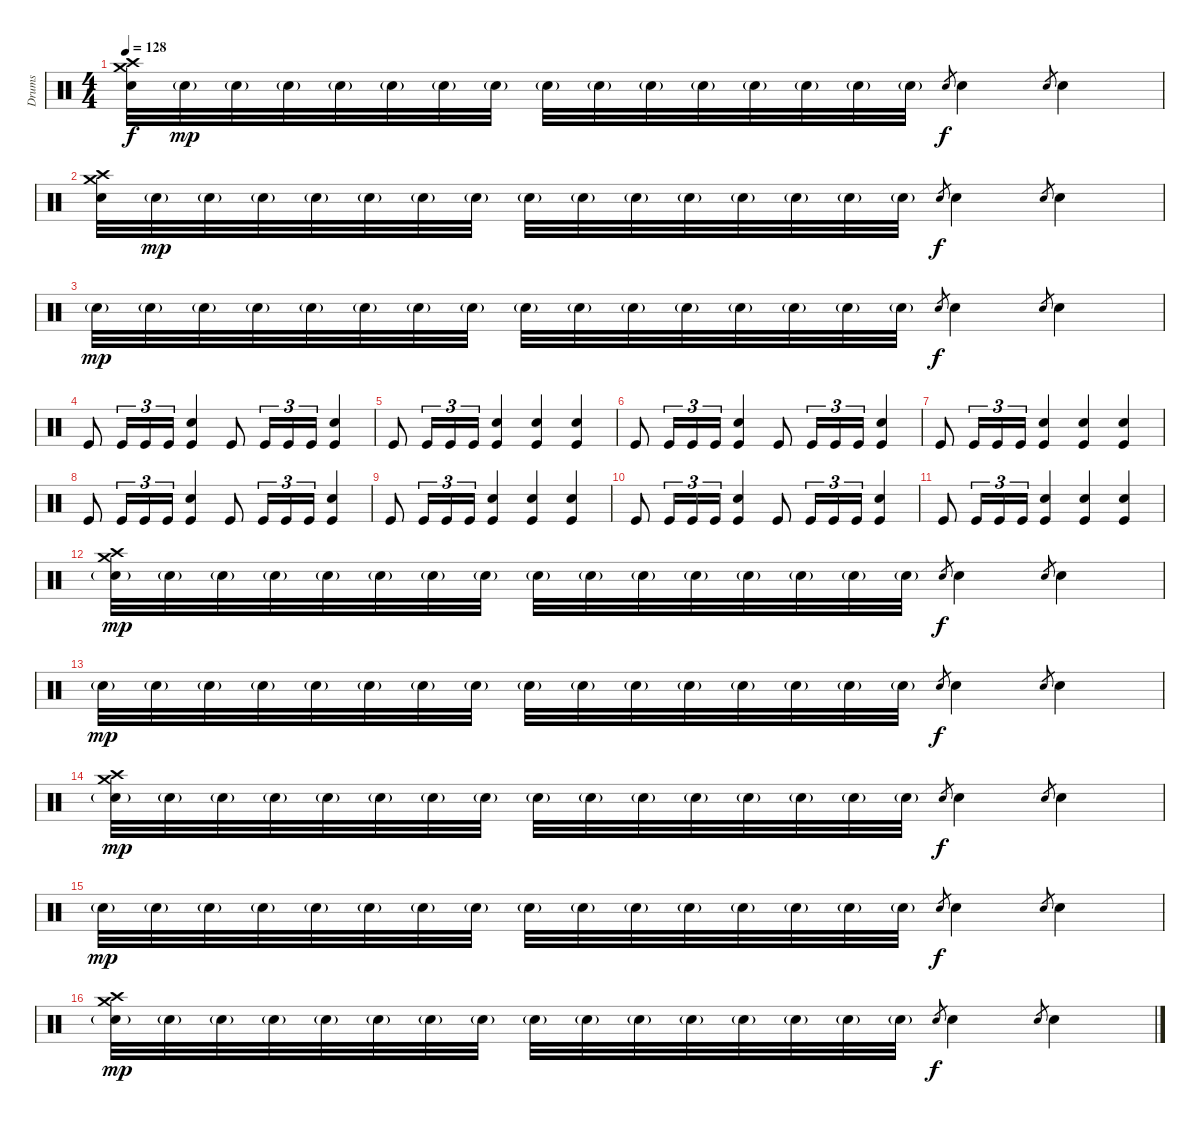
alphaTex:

\track ("Drums" "Drums") {instrument percussion}
\staff {score}
\articulation defaults
\ts (4 4)
\tempo 128
\clef neutral
\ks c
("Crash medium (hit)" "Crash high (hit)" "Snare (hit) 2").32{dy f} "Snare (hit) 2"{g}.32{dy mp} "Snare (hit) 2"{g}.32 "Snare (hit) 2"{g}.32 "Snare (hit) 2"{g}.32 "Snare (hit) 2"{g}.32 "Snare (hit) 2"{g}.32 "Snare (hit) 2"{g}.32 "Snare (hit) 2"{g}.32 "Snare (hit) 2"{g}.32 "Snare (hit) 2"{g}.32 "Snare (hit) 2"{g}.32 "Snare (hit) 2"{g}.32 "Snare (hit) 2"{g}.32 "Snare (hit) 2"{g}.32 "Snare (hit) 2"{g}.32 "Snare (hit) 2".8{gr dy f} "Snare (hit) 2".4 "Snare (hit) 2".8{gr} "Snare (hit) 2".4 |
("Crash medium (hit)" "Crash high (hit)" "Snare (hit) 2").32 "Snare (hit) 2"{g}.32{dy mp} "Snare (hit) 2"{g}.32 "Snare (hit) 2"{g}.32 "Snare (hit) 2"{g}.32 "Snare (hit) 2"{g}.32 "Snare (hit) 2"{g}.32 "Snare (hit) 2"{g}.32 "Snare (hit) 2"{g}.32 "Snare (hit) 2"{g}.32 "Snare (hit) 2"{g}.32 "Snare (hit) 2"{g}.32 "Snare (hit) 2"{g}.32 "Snare (hit) 2"{g}.32 "Snare (hit) 2"{g}.32 "Snare (hit) 2"{g}.32 "Snare (hit) 2".8{gr dy f} "Snare (hit) 2".4 "Snare (hit) 2".8{gr} "Snare (hit) 2".4 |
"Snare (hit) 2"{g}.32{dy mp} "Snare (hit) 2"{g}.32 "Snare (hit) 2"{g}.32 "Snare (hit) 2"{g}.32 "Snare (hit) 2"{g}.32 "Snare (hit) 2"{g}.32 "Snare (hit) 2"{g}.32 "Snare (hit) 2"{g}.32 "Snare (hit) 2"{g}.32 "Snare (hit) 2"{g}.32 "Snare (hit) 2"{g}.32 "Snare (hit) 2"{g}.32 "Snare (hit) 2"{g}.32 "Snare (hit) 2"{g}.32 "Snare (hit) 2"{g}.32 "Snare (hit) 2"{g}.32 "Snare (hit) 2".8{gr dy f} "Snare (hit) 2".4 "Snare (hit) 2".8{gr} "Snare (hit) 2".4 |
\section ("" "")
"Kick (hit)".8{volume 16} "Kick (hit)".16{tu (3 2)} "Kick (hit)".16{tu (3 2)} "Kick (hit)".16{tu (3 2)} ("Snare (hit) 2" "Kick (hit)").4 "Kick (hit)".8 "Kick (hit)".16{tu (3 2)} "Kick (hit)".16{tu (3 2)} "Kick (hit)".16{tu (3 2)} ("Snare (hit) 2" "Kick (hit)").4 |
"Kick (hit)".8 "Kick (hit)".16{tu (3 2)} "Kick (hit)".16{tu (3 2)} "Kick (hit)".16{tu (3 2)} ("Snare (hit) 2" "Kick (hit)").4 ("Snare (hit) 2" "Kick (hit)").4 ("Snare (hit) 2" "Kick (hit)").4 |
"Kick (hit)".8 "Kick (hit)".16{tu (3 2)} "Kick (hit)".16{tu (3 2)} "Kick (hit)".16{tu (3 2)} ("Snare (hit) 2" "Kick (hit)").4 "Kick (hit)".8 "Kick (hit)".16{tu (3 2)} "Kick (hit)".16{tu (3 2)} "Kick (hit)".16{tu (3 2)} ("Snare (hit) 2" "Kick (hit)").4 |
"Kick (hit)".8 "Kick (hit)".16{tu (3 2)} "Kick (hit)".16{tu (3 2)} "Kick (hit)".16{tu (3 2)} ("Snare (hit) 2" "Kick (hit)").4 ("Snare (hit) 2" "Kick (hit)").4 ("Snare (hit) 2" "Kick (hit)").4 |
"Kick (hit)".8 "Kick (hit)".16{tu (3 2)} "Kick (hit)".16{tu (3 2)} "Kick (hit)".16{tu (3 2)} ("Snare (hit) 2" "Kick (hit)").4 "Kick (hit)".8 "Kick (hit)".16{tu (3 2)} "Kick (hit)".16{tu (3 2)} "Kick (hit)".16{tu (3 2)} ("Snare (hit) 2" "Kick (hit)").4 |
"Kick (hit)".8 "Kick (hit)".16{tu (3 2)} "Kick (hit)".16{tu (3 2)} "Kick (hit)".16{tu (3 2)} ("Snare (hit) 2" "Kick (hit)").4 ("Snare (hit) 2" "Kick (hit)").4 ("Snare (hit) 2" "Kick (hit)").4 |
"Kick (hit)".8 "Kick (hit)".16{tu (3 2)} "Kick (hit)".16{tu (3 2)} "Kick (hit)".16{tu (3 2)} ("Snare (hit) 2" "Kick (hit)").4 "Kick (hit)".8 "Kick (hit)".16{tu (3 2)} "Kick (hit)".16{tu (3 2)} "Kick (hit)".16{tu (3 2)} ("Snare (hit) 2" "Kick (hit)").4 |
"Kick (hit)".8 "Kick (hit)".16{tu (3 2)} "Kick (hit)".16{tu (3 2)} "Kick (hit)".16{tu (3 2)} ("Snare (hit) 2" "Kick (hit)").4 ("Snare (hit) 2" "Kick (hit)").4 ("Snare (hit) 2" "Kick (hit)").4 |
\section ("" "")
("Crash medium (hit)" "Crash high (hit)" "Snare (hit) 2"{g}).32{dy mp volume 13} "Snare (hit) 2"{g}.32 "Snare (hit) 2"{g}.32 "Snare (hit) 2"{g}.32 "Snare (hit) 2"{g}.32 "Snare (hit) 2"{g}.32 "Snare (hit) 2"{g}.32 "Snare (hit) 2"{g}.32 "Snare (hit) 2"{g}.32 "Snare (hit) 2"{g}.32 "Snare (hit) 2"{g}.32 "Snare (hit) 2"{g}.32 "Snare (hit) 2"{g}.32 "Snare (hit) 2"{g}.32 "Snare (hit) 2"{g}.32 "Snare (hit) 2"{g}.32 "Snare (hit) 2".8{gr dy f} "Snare (hit) 2".4 "Snare (hit) 2".8{gr} "Snare (hit) 2".4 |
"Snare (hit) 2"{g}.32{dy mp} "Snare (hit) 2"{g}.32 "Snare (hit) 2"{g}.32 "Snare (hit) 2"{g}.32 "Snare (hit) 2"{g}.32 "Snare (hit) 2"{g}.32 "Snare (hit) 2"{g}.32 "Snare (hit) 2"{g}.32 "Snare (hit) 2"{g}.32 "Snare (hit) 2"{g}.32 "Snare (hit) 2"{g}.32 "Snare (hit) 2"{g}.32 "Snare (hit) 2"{g}.32 "Snare (hit) 2"{g}.32 "Snare (hit) 2"{g}.32 "Snare (hit) 2"{g}.32 "Snare (hit) 2".8{gr dy f} "Snare (hit) 2".4 "Snare (hit) 2".8{gr} "Snare (hit) 2".4 |
("Crash medium (hit)" "Crash high (hit)" "Snare (hit) 2"{g}).32{dy mp} "Snare (hit) 2"{g}.32 "Snare (hit) 2"{g}.32 "Snare (hit) 2"{g}.32 "Snare (hit) 2"{g}.32 "Snare (hit) 2"{g}.32 "Snare (hit) 2"{g}.32 "Snare (hit) 2"{g}.32 "Snare (hit) 2"{g}.32 "Snare (hit) 2"{g}.32 "Snare (hit) 2"{g}.32 "Snare (hit) 2"{g}.32 "Snare (hit) 2"{g}.32 "Snare (hit) 2"{g}.32 "Snare (hit) 2"{g}.32 "Snare (hit) 2"{g}.32 "Snare (hit) 2".8{gr dy f} "Snare (hit) 2".4 "Snare (hit) 2".8{gr} "Snare (hit) 2".4 |
"Snare (hit) 2"{g}.32{dy mp} "Snare (hit) 2"{g}.32 "Snare (hit) 2"{g}.32 "Snare (hit) 2"{g}.32 "Snare (hit) 2"{g}.32 "Snare (hit) 2"{g}.32 "Snare (hit) 2"{g}.32 "Snare (hit) 2"{g}.32 "Snare (hit) 2"{g}.32 "Snare (hit) 2"{g}.32 "Snare (hit) 2"{g}.32 "Snare (hit) 2"{g}.32 "Snare (hit) 2"{g}.32 "Snare (hit) 2"{g}.32 "Snare (hit) 2"{g}.32 "Snare (hit) 2"{g}.32 "Snare (hit) 2".8{gr dy f} "Snare (hit) 2".4 "Snare (hit) 2".8{gr} "Snare (hit) 2".4 |
("Crash medium (hit)" "Crash high (hit)" "Snare (hit) 2"{g}).32{dy mp} "Snare (hit) 2"{g}.32 "Snare (hit) 2"{g}.32 "Snare (hit) 2"{g}.32 "Snare (hit) 2"{g}.32 "Snare (hit) 2"{g}.32 "Snare (hit) 2"{g}.32 "Snare (hit) 2"{g}.32 "Snare (hit) 2"{g}.32 "Snare (hit) 2"{g}.32 "Snare (hit) 2"{g}.32 "Snare (hit) 2"{g}.32 "Snare (hit) 2"{g}.32 "Snare (hit) 2"{g}.32 "Snare (hit) 2"{g}.32 "Snare (hit) 2"{g}.32 "Snare (hit) 2".8{gr dy f} "Snare (hit) 2".4 "Snare (hit) 2".8{gr} "Snare (hit) 2".4
